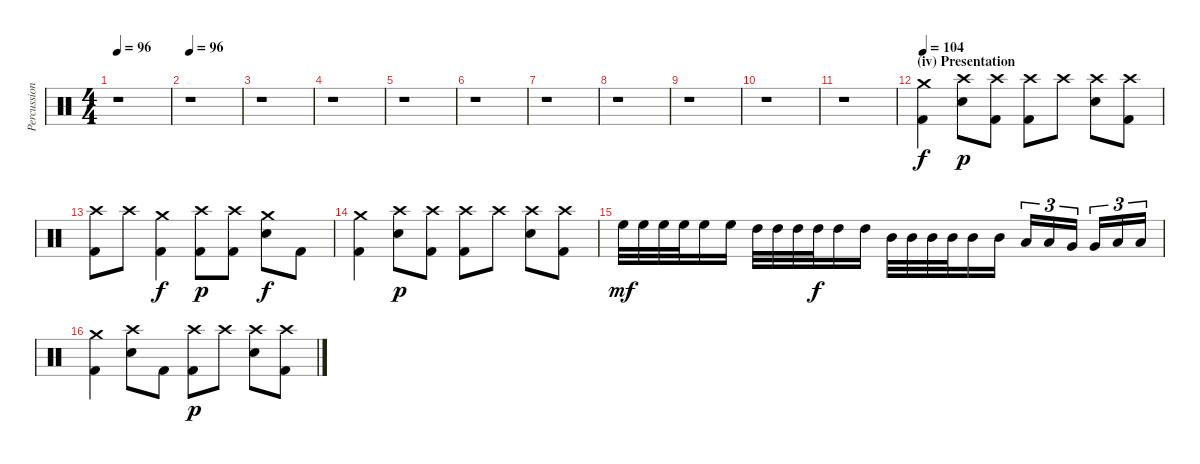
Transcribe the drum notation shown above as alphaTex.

\track ("Percussion" "Percussion") {instrument percussion}
\staff {score}
\articulation defaults
\ts (4 4)
\tempo 96
\clef neutral
\ks c
r.1{dy ff} |
\tempo 96
r.1 |
r.1 |
r.1 |
r.1 |
r.1 |
r.1 |
r.1 |
r.1 |
r.1 |
r.1 |
\section ("" "(iv) Presentation")
\tempo 104
("Kick (hit) 2" "Crash medium (hit)").4{dy f} ("Electric Snare (hit)" "Crash high (hit)").8{dy p} ("Kick (hit) 2" "Crash high (hit)").8 ("Kick (hit) 2" "Crash high (hit)").8 "Crash high (hit)".8 ("Electric Snare (hit)" "Crash high (hit)").8 ("Kick (hit) 2" "Crash high (hit)").8 |
("Kick (hit) 2" "Crash high (hit)").8 "Crash high (hit)".8 ("Kick (hit) 2" "Crash medium (hit)").4{dy f} ("Kick (hit) 2" "Crash high (hit)").8{dy p} ("Kick (hit) 2" "Crash high (hit)").8 ("Electric Snare (hit)" "Crash medium (hit)").8{dy f} "Kick (hit) 2".8 |
("Kick (hit) 2" "Crash medium (hit)").4 ("Electric Snare (hit)" "Crash high (hit)").8{dy p} ("Kick (hit) 2" "Crash high (hit)").8 ("Kick (hit) 2" "Crash high (hit)").8 "Crash high (hit)".8 ("Electric Snare (hit)" "Crash high (hit)").8 ("Kick (hit) 2" "Crash high (hit)").8 |
"High Floor Tom (hit)".32{dy mf} "High Floor Tom (hit)".32 "High Floor Tom (hit)".32 "High Floor Tom (hit)".32 "High Floor Tom (hit)".16 "High Floor Tom (hit)".16 "High Tom (hit)".32 "High Tom (hit)".32 "High Tom (hit)".32 "High Tom (hit)".32{dy f} "High Tom (hit)".16 "High Tom (hit)".16 "Mid Tom (hit)".32 "Mid Tom (hit)".32 "Mid Tom (hit)".32 "Mid Tom (hit)".32 "Mid Tom (hit)".16 "Mid Tom (hit)".16 "Low Tom (hit)".16{tu (3 2)} "Low Tom (hit)".16{tu (3 2)} "Very Low Tom (hit)".16{tu (3 2)} "Very Low Tom (hit)".16{tu (3 2)} "Low Floor Tom (hit)".16{tu (3 2)} "Low Floor Tom (hit)".16{tu (3 2)} |
("Kick (hit) 2" "Crash medium (hit)").4 ("Electric Snare (hit)" "Crash high (hit)").8 "Kick (hit) 2".8 ("Kick (hit) 2" "Crash high (hit)").8{dy p} "Crash high (hit)".8 ("Electric Snare (hit)" "Crash high (hit)").8 ("Kick (hit) 2" "Crash high (hit)").8
